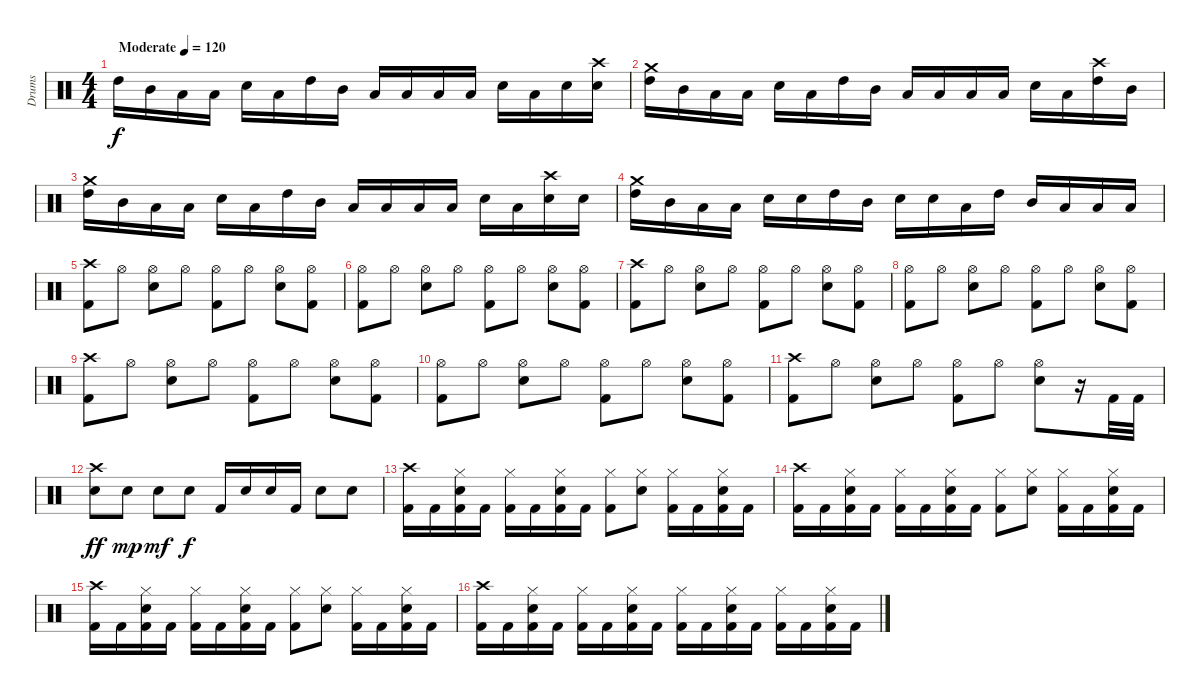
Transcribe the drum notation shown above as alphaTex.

\track ("Drums" "Drums") {instrument percussion}
\staff {score}
\articulation defaults
\ts (4 4)
\tempo (120 "Moderate")
\clef neutral
\ks c "High Tom (hit)".16{dy f} "Mid Tom (hit)".16 "Low Tom (hit)".16 "Low Tom (hit)".16 "Snare (hit) 2".16 "Low Tom (hit)".16 "High Tom (hit)".16 "Mid Tom (hit)".16 "Low Tom (hit)".16 "Low Tom (hit)".16 "Low Tom (hit)".16 "Low Tom (hit)".16 "Snare (hit) 2".16 "Low Tom (hit)".16 "Snare (hit) 2".16
("Snare (hit) 2" "Crash high (hit)").16 |
("High Tom (hit)" "Crash medium (hit)").16 "Mid Tom (hit)".16 "Low Tom (hit)".16 "Low Tom (hit)".16 "Snare (hit) 2".16 "Low Tom (hit)".16 "High Tom (hit)".16 "Mid Tom (hit)".16 "Low Tom (hit)".16 "Low Tom (hit)".16 "Low Tom (hit)".16 "Low Tom (hit)".16 "Snare (hit) 2".16 "Low Tom (hit)".16 ("High Tom (hit)" "Crash high (hit)").16 "Mid Tom (hit)".16 |
("High Tom (hit)" "Crash medium (hit)").16 "Mid Tom (hit)".16 "Low Tom (hit)".16 "Low Tom (hit)".16 "Snare (hit) 2".16 "Low Tom (hit)".16 "High Tom (hit)".16 "Mid Tom (hit)".16 "Low Tom (hit)".16 "Low Tom (hit)".16 "Low Tom (hit)".16 "Low Tom (hit)".16 "Snare (hit) 2".16 "Low Tom (hit)".16 ("Snare (hit) 2" "Crash high (hit)").16 "Snare (hit) 2".16 |
("High Tom (hit)" "Crash medium (hit)").16 "Mid Tom (hit)".16 "Low Tom (hit)".16 "Low Tom (hit)".16 "Snare (hit) 2".16 "Snare (hit) 2".16 "High Tom (hit)".16 "Mid Tom (hit)".16 "Snare (hit) 2".16 "Snare (hit) 2".16 "Low Tom (hit)".16 "High Tom (hit)".16 "Mid Tom (hit)".16 "Low Tom (hit)".16 "Low Tom (hit)".16 "Low Tom (hit)".16 |
("Crash high (hit)" "Kick (hit) 2").8 "Hi-Hat (open)".8 ("Hi-Hat (open)" "Snare (hit) 2").8 "Hi-Hat (open)".8 ("Hi-Hat (open)" "Kick (hit) 2").8 "Hi-Hat (open)".8 ("Hi-Hat (open)" "Snare (hit) 2").8 ("Hi-Hat (open)" "Kick (hit) 2").8 |
("Hi-Hat (open)" "Kick (hit) 2").8 "Hi-Hat (open)".8 ("Hi-Hat (open)" "Snare (hit) 2").8 "Hi-Hat (open)".8 ("Hi-Hat (open)" "Kick (hit) 2").8 "Hi-Hat (open)".8 ("Hi-Hat (open)" "Snare (hit) 2").8 ("Hi-Hat (open)" "Kick (hit) 2").8 |
("Crash high (hit)" "Kick (hit) 2").8 "Hi-Hat (open)".8 ("Hi-Hat (open)" "Snare (hit) 2").8 "Hi-Hat (open)".8 ("Hi-Hat (open)" "Kick (hit) 2").8 "Hi-Hat (open)".8 ("Hi-Hat (open)" "Snare (hit) 2").8 ("Hi-Hat (open)" "Kick (hit) 2").8 |
("Hi-Hat (open)" "Kick (hit) 2").8 "Hi-Hat (open)".8 ("Hi-Hat (open)" "Snare (hit) 2").8 "Hi-Hat (open)".8 ("Hi-Hat (open)" "Kick (hit) 2").8 "Hi-Hat (open)".8 ("Hi-Hat (open)" "Snare (hit) 2").8 ("Hi-Hat (open)" "Kick (hit) 2").8 |
("Crash high (hit)" "Kick (hit) 2").8 "Hi-Hat (open)".8 ("Hi-Hat (open)" "Snare (hit) 2").8 "Hi-Hat (open)".8 ("Hi-Hat (open)" "Kick (hit) 2").8 "Hi-Hat (open)".8 ("Hi-Hat (open)" "Snare (hit) 2").8 ("Hi-Hat (open)" "Kick (hit) 2").8 |
("Hi-Hat (open)" "Kick (hit) 2").8 "Hi-Hat (open)".8 ("Hi-Hat (open)" "Snare (hit) 2").8 "Hi-Hat (open)".8 ("Hi-Hat (open)" "Kick (hit) 2").8 "Hi-Hat (open)".8 ("Hi-Hat (open)" "Snare (hit) 2").8 ("Hi-Hat (open)" "Kick (hit) 2").8 |
("Crash high (hit)" "Kick (hit) 2").8 "Hi-Hat (open)".8 ("Hi-Hat (open)" "Snare (hit) 2").8 "Hi-Hat (open)".8 ("Hi-Hat (open)" "Kick (hit) 2").8 "Hi-Hat (open)".8 ("Hi-Hat (open)" "Snare (hit) 2").8 r.16 "Kick (hit) 2".32 "Kick (hit) 2".32 |
("Crash high (hit)" "Snare (hit) 2").8{dy ff} "Snare (hit) 2".8{dy mp} "Snare (hit) 2".8{dy mf} "Snare (hit) 2".8{dy f} "Kick (hit) 2".16 "Snare (hit) 2".16 "Snare (hit) 2".16 "Kick (hit) 2".16 "Snare (hit) 2".8 "Snare (hit) 2".8 |
("Crash high (hit)" "Kick (hit) 2").16 "Kick (hit) 2".16 ("Hi-Hat (closed)" "Snare (hit) 2" "Kick (hit) 2").16 "Kick (hit) 2".16 ("Hi-Hat (closed)" "Kick (hit) 2").16 "Kick (hit) 2".16 ("Hi-Hat (closed)" "Snare (hit) 2" "Kick (hit) 2").16 "Kick (hit) 2".16 ("Hi-Hat (closed)" "Kick (hit) 2").8 ("Hi-Hat (closed)" "Snare (hit) 2").8 ("Hi-Hat (closed)" "Kick (hit) 2").16 "Kick (hit) 2".16 ("Hi-Hat (closed)" "Snare (hit) 2" "Kick (hit) 2").16 "Kick (hit) 2".16 |
("Crash high (hit)" "Kick (hit) 2").16 "Kick (hit) 2".16 ("Hi-Hat (closed)" "Snare (hit) 2" "Kick (hit) 2").16 "Kick (hit) 2".16 ("Hi-Hat (closed)" "Kick (hit) 2").16 "Kick (hit) 2".16 ("Hi-Hat (closed)" "Snare (hit) 2" "Kick (hit) 2").16 "Kick (hit) 2".16 ("Hi-Hat (closed)" "Kick (hit) 2").8 ("Hi-Hat (closed)" "Snare (hit) 2").8 ("Hi-Hat (closed)" "Kick (hit) 2").16 "Kick (hit) 2".16 ("Hi-Hat (closed)" "Snare (hit) 2" "Kick (hit) 2").16 "Kick (hit) 2".16 |
("Crash high (hit)" "Kick (hit) 2").16 "Kick (hit) 2".16 ("Hi-Hat (closed)" "Snare (hit) 2" "Kick (hit) 2").16 "Kick (hit) 2".16 ("Hi-Hat (closed)" "Kick (hit) 2").16 "Kick (hit) 2".16 ("Hi-Hat (closed)" "Snare (hit) 2" "Kick (hit) 2").16 "Kick (hit) 2".16 ("Hi-Hat (closed)" "Kick (hit) 2").8 ("Hi-Hat (closed)" "Snare (hit) 2").8 ("Hi-Hat (closed)" "Kick (hit) 2").16 "Kick (hit) 2".16 ("Hi-Hat (closed)" "Snare (hit) 2" "Kick (hit) 2").16 "Kick (hit) 2".16 |
("Crash high (hit)" "Kick (hit) 2").16 "Kick (hit) 2".16 ("Hi-Hat (closed)" "Snare (hit) 2" "Kick (hit) 2").16 "Kick (hit) 2".16 ("Hi-Hat (closed)" "Kick (hit) 2").16 "Kick (hit) 2".16 ("Hi-Hat (closed)" "Snare (hit) 2" "Kick (hit) 2").16 "Kick (hit) 2".16 ("Hi-Hat (closed)" "Kick (hit) 2").16 "Kick (hit) 2".16 ("Hi-Hat (closed)" "Snare (hit) 2" "Kick (hit) 2").16 "Kick (hit) 2".16 ("Hi-Hat (closed)" "Kick (hit) 2").16 "Kick (hit) 2".16 ("Hi-Hat (closed)" "Snare (hit) 2" "Kick (hit) 2").16 "Kick (hit) 2".16
